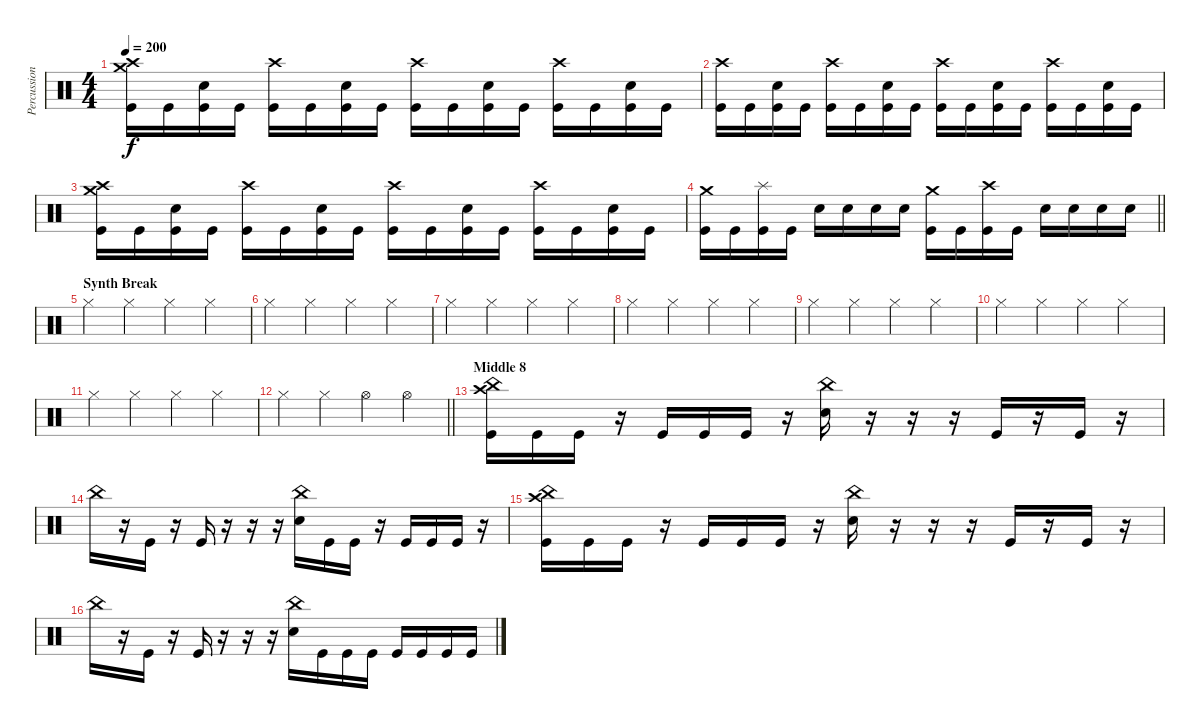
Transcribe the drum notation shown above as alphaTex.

\track ("Percussion" "Percussion") {instrument percussion}
\staff {score}
\articulation defaults
\ts (4 4)
\tempo 200
\clef neutral
\ks c
("Crash high (hit)" "Kick (hit)" "Crash medium (hit)").16{dy f} "Kick (hit)".16 ("Snare (hit) 2" "Kick (hit)").16 "Kick (hit)".16 ("Crash high (hit)" "Kick (hit)").16 "Kick (hit)".16 ("Snare (hit) 2" "Kick (hit)").16 "Kick (hit)".16 ("Crash high (hit)" "Kick (hit)").16 "Kick (hit)".16 ("Snare (hit) 2" "Kick (hit)").16 "Kick (hit)".16 ("Crash high (hit)" "Kick (hit)").16 "Kick (hit)".16 ("Snare (hit) 2" "Kick (hit)").16 "Kick (hit)".16 |
("Crash high (hit)" "Kick (hit)").16 "Kick (hit)".16 ("Snare (hit) 2" "Kick (hit)").16 "Kick (hit)".16 ("Crash high (hit)" "Kick (hit)").16 "Kick (hit)".16 ("Snare (hit) 2" "Kick (hit)").16 "Kick (hit)".16 ("Crash high (hit)" "Kick (hit)").16 "Kick (hit)".16 ("Snare (hit) 2" "Kick (hit)").16 "Kick (hit)".16 ("Crash high (hit)" "Kick (hit)").16 "Kick (hit)".16 ("Snare (hit) 2" "Kick (hit)").16 "Kick (hit)".16 |
("Crash high (hit)" "Kick (hit)" "Crash medium (hit)").16 "Kick (hit)".16 ("Snare (hit) 2" "Kick (hit)").16 "Kick (hit)".16 ("Crash high (hit)" "Kick (hit)").16 "Kick (hit)".16 ("Snare (hit) 2" "Kick (hit)").16 "Kick (hit)".16 ("Crash high (hit)" "Kick (hit)").16 "Kick (hit)".16 ("Snare (hit) 2" "Kick (hit)").16 "Kick (hit)".16 ("Crash high (hit)" "Kick (hit)").16 "Kick (hit)".16 ("Snare (hit) 2" "Kick (hit)").16 "Kick (hit)".16 |
\barLineRight lightlight
("Crash medium (hit)" "Kick (hit)").16 "Kick (hit)".16 ("Splash (hit)" "Kick (hit)").16 "Kick (hit)".16 "Snare (hit) 2".16 "Snare (hit) 2".16 "Snare (hit) 2".16 "Snare (hit) 2".16 ("Crash medium (hit)" "Kick (hit)").16 "Kick (hit)".16 ("Crash high (hit)" "Kick (hit)").16 "Kick (hit)".16 "Snare (hit) 2".16 "Snare (hit) 2".16 "Snare (hit) 2".16 "Snare (hit) 2".16 |
\section ("" "Synth Break")
"Hi-Hat (closed)".4 "Hi-Hat (closed)".4 "Hi-Hat (closed)".4 "Hi-Hat (closed)".4 |
"Hi-Hat (closed)".4 "Hi-Hat (closed)".4 "Hi-Hat (closed)".4 "Hi-Hat (closed)".4 |
"Hi-Hat (closed)".4 "Hi-Hat (closed)".4 "Hi-Hat (closed)".4 "Hi-Hat (closed)".4 |
"Hi-Hat (closed)".4 "Hi-Hat (closed)".4 "Hi-Hat (closed)".4 "Hi-Hat (closed)".4 |
"Hi-Hat (closed)".4 "Hi-Hat (closed)".4 "Hi-Hat (closed)".4 "Hi-Hat (closed)".4 |
"Hi-Hat (closed)".4 "Hi-Hat (closed)".4 "Hi-Hat (closed)".4 "Hi-Hat (closed)".4 |
"Hi-Hat (closed)".4 "Hi-Hat (closed)".4 "Hi-Hat (closed)".4 "Hi-Hat (closed)".4 |
\barLineRight lightlight "Hi-Hat (closed)".4 "Hi-Hat (closed)".4 "Hi-Hat (open)".4 "Hi-Hat (open)".4
|
\section ("" "Middle 8")
("China (hit)" "Crash high (hit)" "Kick (hit)").16 "Kick (hit)".16 "Kick (hit)".16 r.16 "Kick (hit)".16 "Kick (hit)".16 "Kick (hit)".16 r.16 ("China (hit)" "Snare (hit) 2").16 r.16 r.16 r.16 "Kick (hit)".16 r.16 "Kick (hit)".16 r.16 |
"China (hit)".16 r.16 "Kick (hit)".16 r.16 "Kick (hit)".16 r.16 r.16 r.16 ("Snare (hit) 2" "China (hit)").16 "Kick (hit)".16 "Kick (hit)".16 r.16 "Kick (hit)".16 "Kick (hit)".16 "Kick (hit)".16 r.16 |
("China (hit)" "Crash high (hit)" "Kick (hit)").16 "Kick (hit)".16 "Kick (hit)".16 r.16 "Kick (hit)".16 "Kick (hit)".16 "Kick (hit)".16 r.16 ("China (hit)" "Snare (hit) 2").16 r.16 r.16 r.16 "Kick (hit)".16 r.16 "Kick (hit)".16 r.16 |
"China (hit)".16 r.16 "Kick (hit)".16 r.16 "Kick (hit)".16 r.16 r.16 r.16 ("Snare (hit) 2" "China (hit)").16 "Kick (hit)".16 "Kick (hit)".16 "Kick (hit)".16 "Kick (hit)".16 "Kick (hit)".16 "Kick (hit)".16 "Kick (hit)".16
